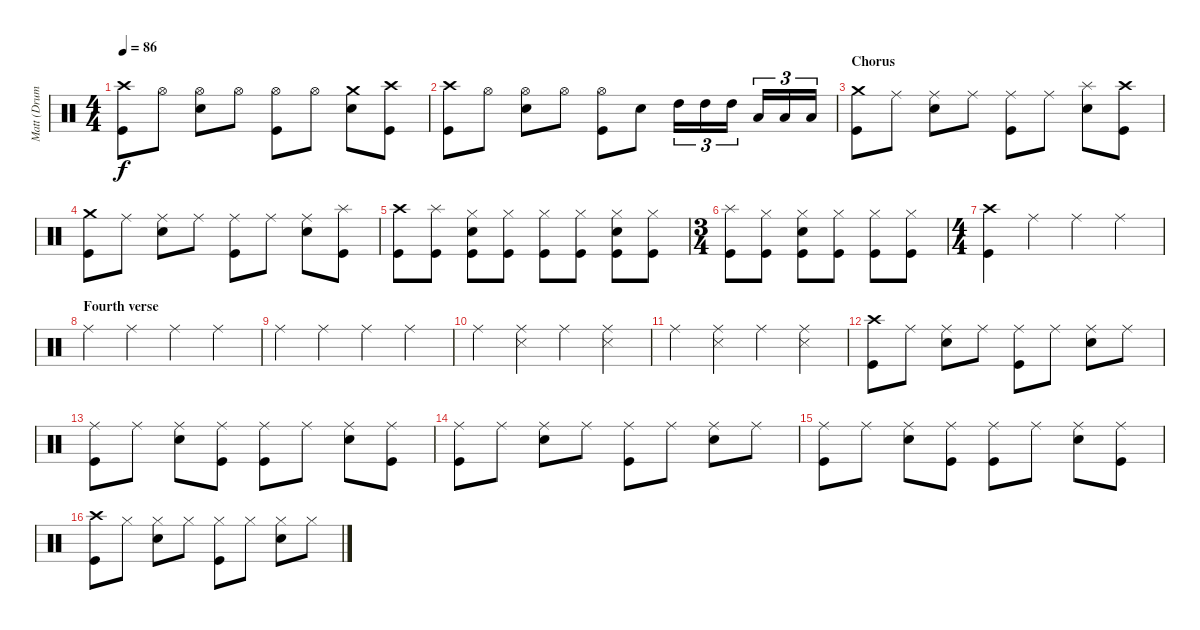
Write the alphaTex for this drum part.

\track ("Matt (Drums)" "Matt (Drum") {instrument percussion}
\staff {score}
\articulation defaults
\ts (4 4)
\tempo 86
\clef neutral
\ks c
("Crash high (hit)" "Kick (hit)").8{dy f} "Hi-Hat (open)".8 ("Hi-Hat (open)" "Electric Snare (hit)").8 "Hi-Hat (open)".8 ("Hi-Hat (open)" "Kick (hit)").8 "Hi-Hat (open)".8 ("Crash medium (hit)" "Electric Snare (hit)").8 ("Crash high (hit)" "Kick (hit)").8 |
("Crash high (hit)" "Kick (hit)").8 "Hi-Hat (open)".8 ("Hi-Hat (open)" "Electric Snare (hit)").8 "Hi-Hat (open)".8 ("Hi-Hat (open)" "Kick (hit)").8 "Electric Snare (hit)".8 "High Tom (hit)".16{tu (3 2)} "High Tom (hit)".16{tu (3 2)} "High Tom (hit)".16{tu (3 2)} "Low Tom (hit)".16{tu (3 2)} "Low Tom (hit)".16{tu (3 2)} "Low Tom (hit)".16{tu (3 2)} |
\section ("" "Chorus")
("Crash medium (hit)" "Kick (hit)").8 "Ride (middle)".8 ("Ride (middle)" "Electric Snare (hit)").8 "Ride (middle)".8 ("Ride (middle)" "Kick (hit)").8 "Ride (middle)".8 ("Splash (hit)" "Electric Snare (hit)").8 ("Crash high (hit)" "Kick (hit)").8 |
("Crash medium (hit)" "Kick (hit)").8 "Ride (middle)".8 ("Ride (middle)" "Electric Snare (hit)").8 "Ride (middle)".8 ("Ride (middle)" "Kick (hit)").8 "Ride (middle)".8 ("Ride (middle)" "Electric Snare (hit)").8 ("Splash (hit)" "Kick (hit)").8 |
("Crash high (hit)" "Kick (hit)").8 ("Splash (hit)" "Kick (hit)").8 ("Hi-Hat (closed)" "Electric Snare (hit)" "Kick (hit)").8 ("Hi-Hat (closed)" "Kick (hit)").8 ("Hi-Hat (closed)" "Kick (hit)").8 ("Hi-Hat (closed)" "Kick (hit)").8 ("Hi-Hat (closed)" "Electric Snare (hit)" "Kick (hit)").8 ("Hi-Hat (closed)" "Kick (hit)").8 |
\ts (3 4)
("Splash (hit)" "Kick (hit)").8 ("Hi-Hat (closed)" "Kick (hit)").8 ("Hi-Hat (closed)" "Electric Snare (hit)" "Kick (hit)").8 ("Hi-Hat (closed)" "Kick (hit)").8 ("Hi-Hat (closed)" "Kick (hit)").8 ("Hi-Hat (closed)" "Kick (hit)").8 |
\ts (4 4)
("Crash high (hit)" "Kick (hit)").4 "Ride (middle)".4 "Ride (middle)".4 "Ride (middle)".4 |
\section ("" "Fourth verse")
"Ride (middle)".4 "Ride (middle)".4 "Ride (middle)".4 "Ride (middle)".4 |
"Ride (middle)".4 "Ride (middle)".4 "Ride (middle)".4 "Ride (middle)".4 |
"Ride (middle)".4 ("Ride (middle)" "Snare (side stick) 3").4 "Ride (middle)".4 ("Ride (middle)" "Snare (side stick) 3").4 |
"Ride (middle)".4 ("Ride (middle)" "Snare (side stick) 3").4 "Ride (middle)".4 ("Ride (middle)" "Snare (side stick) 3").4 |
("Crash high (hit)" "Kick (hit)").8 "Ride (middle)".8 ("Ride (middle)" "Electric Snare (hit)").8 "Ride (middle)".8 ("Ride (middle)" "Kick (hit)").8 "Ride (middle)".8 ("Ride (middle)" "Electric Snare (hit)").8 "Ride (middle)".8 |
("Ride (middle)" "Kick (hit)").8 "Ride (middle)".8 ("Ride (middle)" "Electric Snare (hit)").8 ("Ride (middle)" "Kick (hit)").8 ("Ride (middle)" "Kick (hit)").8 "Ride (middle)".8 ("Ride (middle)" "Electric Snare (hit)").8 ("Ride (middle)" "Kick (hit)").8 |
("Ride (middle)" "Kick (hit)").8 "Ride (middle)".8 ("Ride (middle)" "Electric Snare (hit)").8 "Ride (middle)".8 ("Ride (middle)" "Kick (hit)").8 "Ride (middle)".8 ("Ride (middle)" "Electric Snare (hit)").8 "Ride (middle)".8 |
("Ride (middle)" "Kick (hit)").8 "Ride (middle)".8 ("Ride (middle)" "Electric Snare (hit)").8 ("Ride (middle)" "Kick (hit)").8 ("Ride (middle)" "Kick (hit)").8 "Ride (middle)".8 ("Ride (middle)" "Electric Snare (hit)").8 ("Ride (middle)" "Kick (hit)").8 |
("Crash high (hit)" "Kick (hit)").8 "Hi-Hat (closed)".8 ("Hi-Hat (closed)" "Electric Snare (hit)").8 "Hi-Hat (closed)".8 ("Hi-Hat (closed)" "Kick (hit)").8 "Hi-Hat (closed)".8 ("Hi-Hat (closed)" "Electric Snare (hit)").8 "Hi-Hat (closed)".8
